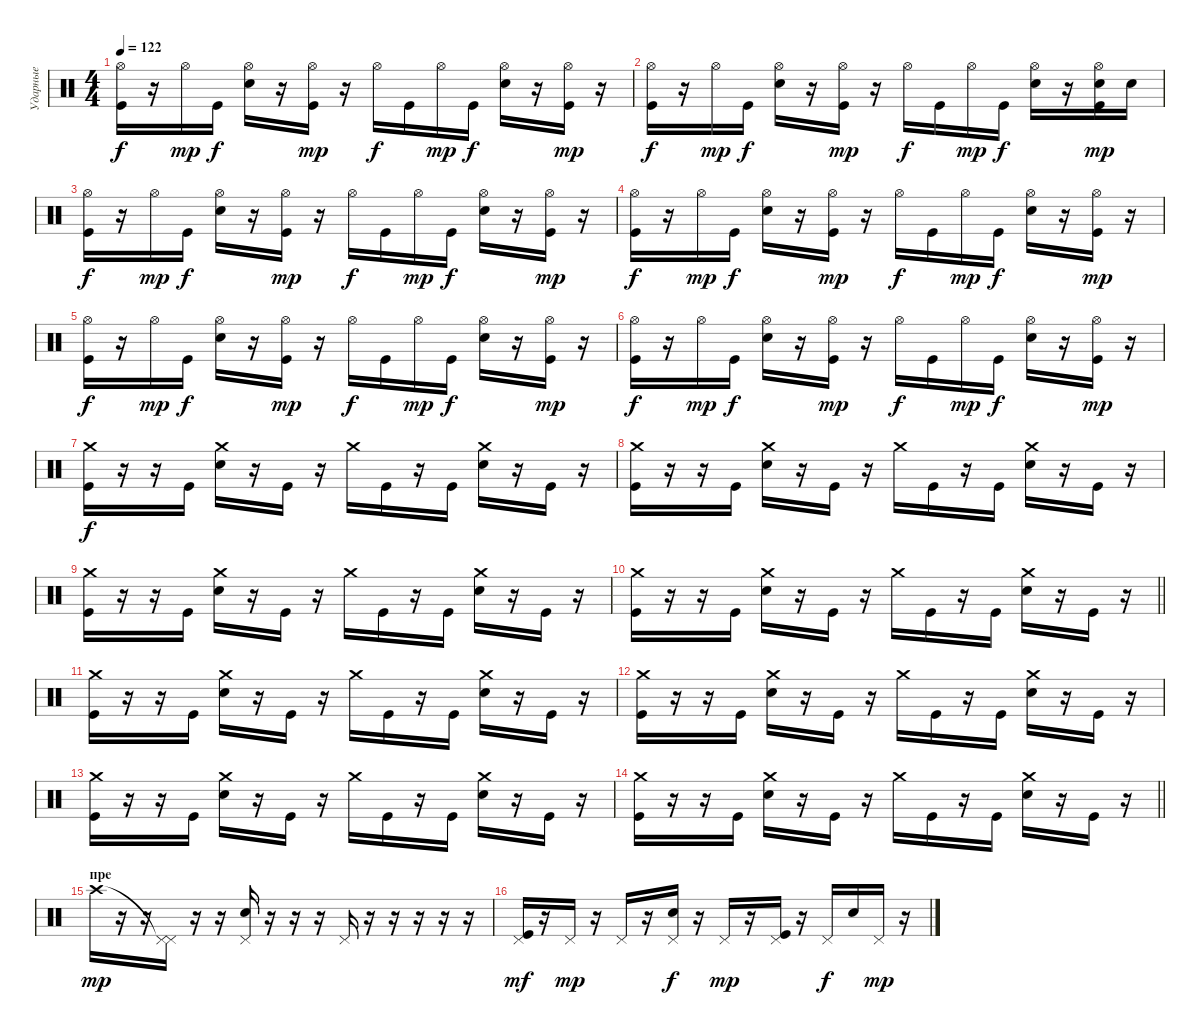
\track ("Ударные" "Ударные") {instrument percussion}
\staff {score}
\articulation defaults
\ts (4 4)
\tempo 122
\clef neutral
\ks c
("Hi-Hat (open)" "Kick (hit)").16{dy f} r.16 "Hi-Hat (open)".16{dy mp} "Kick (hit)".16{dy f} ("Hi-Hat (open)" "Electric Snare (hit)").16 r.16 ("Hi-Hat (open)" "Kick (hit)").16{dy mp} r.16 "Hi-Hat (open)".16{dy f} "Kick (hit)".16 "Hi-Hat (open)".16{dy mp} "Kick (hit)".16{dy f} ("Hi-Hat (open)" "Electric Snare (hit)").16 r.16 ("Hi-Hat (open)" "Kick (hit)").16{dy mp} r.16 |
("Hi-Hat (open)" "Kick (hit)").16{dy f} r.16 "Hi-Hat (open)".16{dy mp} "Kick (hit)".16{dy f} ("Hi-Hat (open)" "Electric Snare (hit)").16 r.16 ("Hi-Hat (open)" "Kick (hit)").16{dy mp} r.16 "Hi-Hat (open)".16{dy f} "Kick (hit)".16 "Hi-Hat (open)".16{dy mp} "Kick (hit)".16{dy f} ("Hi-Hat (open)" "Electric Snare (hit)").16 r.16 ("Hi-Hat (open)" "Electric Snare (hit)" "Kick (hit)").16{dy mp} "Electric Snare (hit)".16 |
("Hi-Hat (open)" "Kick (hit)").16{dy f} r.16 "Hi-Hat (open)".16{dy mp} "Kick (hit)".16{dy f} ("Hi-Hat (open)" "Electric Snare (hit)").16 r.16 ("Hi-Hat (open)" "Kick (hit)").16{dy mp} r.16 "Hi-Hat (open)".16{dy f} "Kick (hit)".16 "Hi-Hat (open)".16{dy mp} "Kick (hit)".16{dy f} ("Hi-Hat (open)" "Electric Snare (hit)").16 r.16 ("Hi-Hat (open)" "Kick (hit)").16{dy mp} r.16 |
("Hi-Hat (open)" "Kick (hit)").16{dy f} r.16 "Hi-Hat (open)".16{dy mp} "Kick (hit)".16{dy f} ("Hi-Hat (open)" "Electric Snare (hit)").16 r.16 ("Hi-Hat (open)" "Kick (hit)").16{dy mp} r.16 "Hi-Hat (open)".16{dy f} "Kick (hit)".16 "Hi-Hat (open)".16{dy mp} "Kick (hit)".16{dy f} ("Hi-Hat (open)" "Electric Snare (hit)").16 r.16 ("Hi-Hat (open)" "Kick (hit)").16{dy mp} r.16 |
("Hi-Hat (open)" "Kick (hit)").16{dy f} r.16 "Hi-Hat (open)".16{dy mp} "Kick (hit)".16{dy f} ("Hi-Hat (open)" "Electric Snare (hit)").16 r.16 ("Hi-Hat (open)" "Kick (hit)").16{dy mp} r.16 "Hi-Hat (open)".16{dy f} "Kick (hit)".16 "Hi-Hat (open)".16{dy mp} "Kick (hit)".16{dy f} ("Hi-Hat (open)" "Electric Snare (hit)").16 r.16 ("Hi-Hat (open)" "Kick (hit)").16{dy mp} r.16 |
("Hi-Hat (open)" "Kick (hit)").16{dy f} r.16 "Hi-Hat (open)".16{dy mp} "Kick (hit)".16{dy f} ("Hi-Hat (open)" "Electric Snare (hit)").16 r.16 ("Hi-Hat (open)" "Kick (hit)").16{dy mp} r.16 "Hi-Hat (open)".16{dy f} "Kick (hit)".16 "Hi-Hat (open)".16{dy mp} "Kick (hit)".16{dy f} ("Hi-Hat (open)" "Electric Snare (hit)").16 r.16 ("Hi-Hat (open)" "Kick (hit)").16{dy mp} r.16 |
("Crash medium (hit)" "Kick (hit)").16{dy f} r.16 r.16 "Kick (hit)".16 ("Crash medium (hit)" "Electric Snare (hit)").16 r.16 "Kick (hit)".16 r.16 "Crash medium (hit)".16 "Kick (hit)".16 r.16 "Kick (hit)".16 ("Crash medium (hit)" "Electric Snare (hit)").16 r.16 "Kick (hit)".16 r.16 |
("Crash medium (hit)" "Kick (hit)").16 r.16 r.16 "Kick (hit)".16 ("Crash medium (hit)" "Electric Snare (hit)").16 r.16 "Kick (hit)".16 r.16 "Crash medium (hit)".16 "Kick (hit)".16 r.16 "Kick (hit)".16 ("Crash medium (hit)" "Electric Snare (hit)").16 r.16 "Kick (hit)".16 r.16 |
("Crash medium (hit)" "Kick (hit)").16 r.16 r.16 "Kick (hit)".16 ("Crash medium (hit)" "Electric Snare (hit)").16 r.16 "Kick (hit)".16 r.16 "Crash medium (hit)".16 "Kick (hit)".16 r.16 "Kick (hit)".16 ("Crash medium (hit)" "Electric Snare (hit)").16 r.16 "Kick (hit)".16 r.16 |
\barLineRight lightlight
("Crash medium (hit)" "Kick (hit)").16 r.16 r.16 "Kick (hit)".16 ("Crash medium (hit)" "Electric Snare (hit)").16 r.16 "Kick (hit)".16 r.16 "Crash medium (hit)".16 "Kick (hit)".16 r.16 "Kick (hit)".16 ("Crash medium (hit)" "Electric Snare (hit)").16 r.16 "Kick (hit)".16 r.16 |
("Crash medium (hit)" "Kick (hit)").16 r.16 r.16 "Kick (hit)".16 ("Crash medium (hit)" "Electric Snare (hit)").16 r.16 "Kick (hit)".16 r.16 "Crash medium (hit)".16 "Kick (hit)".16 r.16 "Kick (hit)".16 ("Crash medium (hit)" "Electric Snare (hit)").16 r.16 "Kick (hit)".16 r.16 |
("Crash medium (hit)" "Kick (hit)").16 r.16 r.16 "Kick (hit)".16 ("Crash medium (hit)" "Electric Snare (hit)").16 r.16 "Kick (hit)".16 r.16 "Crash medium (hit)".16 "Kick (hit)".16 r.16 "Kick (hit)".16 ("Crash medium (hit)" "Electric Snare (hit)").16 r.16 "Kick (hit)".16 r.16 |
("Crash medium (hit)" "Kick (hit)").16 r.16 r.16 "Kick (hit)".16 ("Crash medium (hit)" "Electric Snare (hit)").16 r.16 "Kick (hit)".16 r.16 "Crash medium (hit)".16 "Kick (hit)".16 r.16 "Kick (hit)".16 ("Crash medium (hit)" "Electric Snare (hit)").16 r.16 "Kick (hit)".16 r.16 |
\barLineRight lightlight
("Crash medium (hit)" "Kick (hit)").16 r.16 r.16 "Kick (hit)".16 ("Crash medium (hit)" "Electric Snare (hit)").16 r.16 "Kick (hit)".16 r.16 "Crash medium (hit)".16 "Kick (hit)".16 r.16 "Kick (hit)".16 ("Crash medium (hit)" "Electric Snare (hit)").16 r.16 "Kick (hit)".16 r.16 |
\section ("" "пре")
"Crash high (hit)".16{dy mp} r.16 r.16 ("Pedal Hi-Hat (hit)"{t} "Pedal Hi-Hat (hit)").16 r.16 r.16 ("Electric Snare (hit)" "Pedal Hi-Hat (hit)").16 r.16 r.16 r.16 "Pedal Hi-Hat (hit)".16 r.16 r.16 r.16 r.16 r.16 |
("Pedal Hi-Hat (hit)" "Kick (hit)").16{dy mf} r.16 "Pedal Hi-Hat (hit)".16{dy mp} r.16 "Pedal Hi-Hat (hit)".16 r.16 ("Pedal Hi-Hat (hit)" "Electric Snare (hit)").16{dy f} r.16 "Pedal Hi-Hat (hit)".16{dy mp} r.16 ("Pedal Hi-Hat (hit)" "Kick (hit)").16 r.16 "Pedal Hi-Hat (hit)".16{dy f} "Electric Snare (hit)".16 "Pedal Hi-Hat (hit)".16{dy mp} r.16
